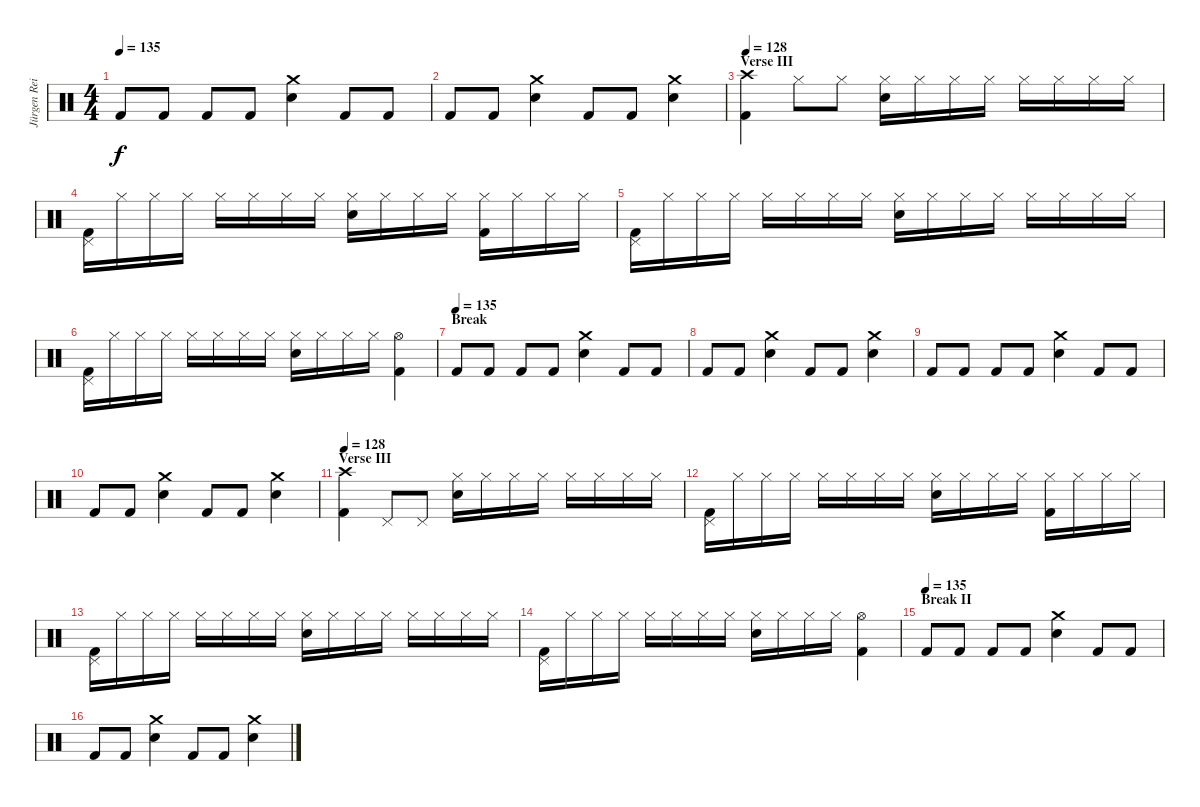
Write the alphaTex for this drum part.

\track ("Jürgen Reil [drums]" "Jürgen Rei") {instrument percussion}
\staff {score}
\articulation defaults
\ts (4 4)
\tempo 135
\clef neutral
\ks c "Kick (hit) 2".8{dy f} "Kick (hit) 2".8 "Kick (hit) 2".8 "Kick (hit) 2".8
("Crash medium (hit)" "Electric Snare (hit)").4 "Kick (hit) 2".8 "Kick (hit) 2".8 |
"Kick (hit) 2".8 "Kick (hit) 2".8 ("Crash medium (hit)" "Electric Snare (hit)").4 "Kick (hit) 2".8 "Kick (hit) 2".8 ("Crash medium (hit)" "Electric Snare (hit)").4 |
\section ("" "Verse III")
\tempo 128
("Crash high (hit)" "Kick (hit) 2").4 "Hi-Hat (closed)".8 "Hi-Hat (closed)".8 ("Hi-Hat (closed)" "Electric Snare (hit)").16 "Hi-Hat (closed)".16 "Hi-Hat (closed)".16 "Hi-Hat (closed)".16 "Hi-Hat (closed)".16 "Hi-Hat (closed)".16 "Hi-Hat (closed)".16 "Hi-Hat (closed)".16 |
("Pedal Hi-Hat (hit)" "Kick (hit) 2").16 "Hi-Hat (closed)".16 "Hi-Hat (closed)".16 "Hi-Hat (closed)".16 "Hi-Hat (closed)".16 "Hi-Hat (closed)".16 "Hi-Hat (closed)".16 "Hi-Hat (closed)".16 ("Hi-Hat (closed)" "Electric Snare (hit)").16 "Hi-Hat (closed)".16 "Hi-Hat (closed)".16 "Hi-Hat (closed)".16 ("Hi-Hat (closed)" "Kick (hit) 2").16 "Hi-Hat (closed)".16 "Hi-Hat (closed)".16 "Hi-Hat (closed)".16 |
("Pedal Hi-Hat (hit)" "Kick (hit) 2").16 "Hi-Hat (closed)".16 "Hi-Hat (closed)".16 "Hi-Hat (closed)".16 "Hi-Hat (closed)".16 "Hi-Hat (closed)".16 "Hi-Hat (closed)".16 "Hi-Hat (closed)".16 ("Hi-Hat (closed)" "Electric Snare (hit)").16 "Hi-Hat (closed)".16 "Hi-Hat (closed)".16 "Hi-Hat (closed)".16 "Hi-Hat (closed)".16 "Hi-Hat (closed)".16 "Hi-Hat (closed)".16 "Hi-Hat (closed)".16 |
("Pedal Hi-Hat (hit)" "Kick (hit) 2").16 "Hi-Hat (closed)".16 "Hi-Hat (closed)".16 "Hi-Hat (closed)".16 "Hi-Hat (closed)".16 "Hi-Hat (closed)".16 "Hi-Hat (closed)".16 "Hi-Hat (closed)".16 ("Hi-Hat (closed)" "Electric Snare (hit)").16 "Hi-Hat (closed)".16 "Hi-Hat (closed)".16 "Hi-Hat (closed)".16 ("Hi-Hat (open)" "Kick (hit) 2").4 |
\section ("" "Break")
\tempo (135)
"Kick (hit) 2".8 "Kick (hit) 2".8 "Kick (hit) 2".8 "Kick (hit) 2".8 ("Crash medium (hit)" "Electric Snare (hit)").4 "Kick (hit) 2".8 "Kick (hit) 2".8 |
"Kick (hit) 2".8 "Kick (hit) 2".8 ("Crash medium (hit)" "Electric Snare (hit)").4 "Kick (hit) 2".8 "Kick (hit) 2".8 ("Crash medium (hit)" "Electric Snare (hit)").4 |
"Kick (hit) 2".8 "Kick (hit) 2".8 "Kick (hit) 2".8 "Kick (hit) 2".8 ("Crash medium (hit)" "Electric Snare (hit)").4 "Kick (hit) 2".8 "Kick (hit) 2".8 |
"Kick (hit) 2".8 "Kick (hit) 2".8 ("Crash medium (hit)" "Electric Snare (hit)").4 "Kick (hit) 2".8 "Kick (hit) 2".8 ("Crash medium (hit)" "Electric Snare (hit)").4 |
\section ("" "Verse III")
\tempo 128
("Crash high (hit)" "Kick (hit) 2").4 "Pedal Hi-Hat (hit)".8 "Pedal Hi-Hat (hit)".8 ("Hi-Hat (closed)" "Electric Snare (hit)").16 "Hi-Hat (closed)".16 "Hi-Hat (closed)".16 "Hi-Hat (closed)".16 "Hi-Hat (closed)".16 "Hi-Hat (closed)".16 "Hi-Hat (closed)".16 "Hi-Hat (closed)".16 |
("Pedal Hi-Hat (hit)" "Kick (hit) 2").16 "Hi-Hat (closed)".16 "Hi-Hat (closed)".16 "Hi-Hat (closed)".16 "Hi-Hat (closed)".16 "Hi-Hat (closed)".16 "Hi-Hat (closed)".16 "Hi-Hat (closed)".16 ("Hi-Hat (closed)" "Electric Snare (hit)").16 "Hi-Hat (closed)".16 "Hi-Hat (closed)".16 "Hi-Hat (closed)".16 ("Hi-Hat (closed)" "Kick (hit) 2").16 "Hi-Hat (closed)".16 "Hi-Hat (closed)".16 "Hi-Hat (closed)".16 |
("Pedal Hi-Hat (hit)" "Kick (hit) 2").16 "Hi-Hat (closed)".16 "Hi-Hat (closed)".16 "Hi-Hat (closed)".16 "Hi-Hat (closed)".16 "Hi-Hat (closed)".16 "Hi-Hat (closed)".16 "Hi-Hat (closed)".16 ("Hi-Hat (closed)" "Electric Snare (hit)").16 "Hi-Hat (closed)".16 "Hi-Hat (closed)".16 "Hi-Hat (closed)".16 "Hi-Hat (closed)".16 "Hi-Hat (closed)".16 "Hi-Hat (closed)".16 "Hi-Hat (closed)".16 |
("Pedal Hi-Hat (hit)" "Kick (hit) 2").16 "Hi-Hat (closed)".16 "Hi-Hat (closed)".16 "Hi-Hat (closed)".16 "Hi-Hat (closed)".16 "Hi-Hat (closed)".16 "Hi-Hat (closed)".16 "Hi-Hat (closed)".16 ("Hi-Hat (closed)" "Electric Snare (hit)").16 "Hi-Hat (closed)".16 "Hi-Hat (closed)".16 "Hi-Hat (closed)".16 ("Hi-Hat (open)" "Kick (hit) 2").4 |
\section ("" "Break II")
\tempo (135)
"Kick (hit) 2".8 "Kick (hit) 2".8 "Kick (hit) 2".8 "Kick (hit) 2".8 ("Crash medium (hit)" "Electric Snare (hit)").4 "Kick (hit) 2".8 "Kick (hit) 2".8 |
"Kick (hit) 2".8 "Kick (hit) 2".8 ("Crash medium (hit)" "Electric Snare (hit)").4 "Kick (hit) 2".8 "Kick (hit) 2".8 ("Crash medium (hit)" "Electric Snare (hit)").4
